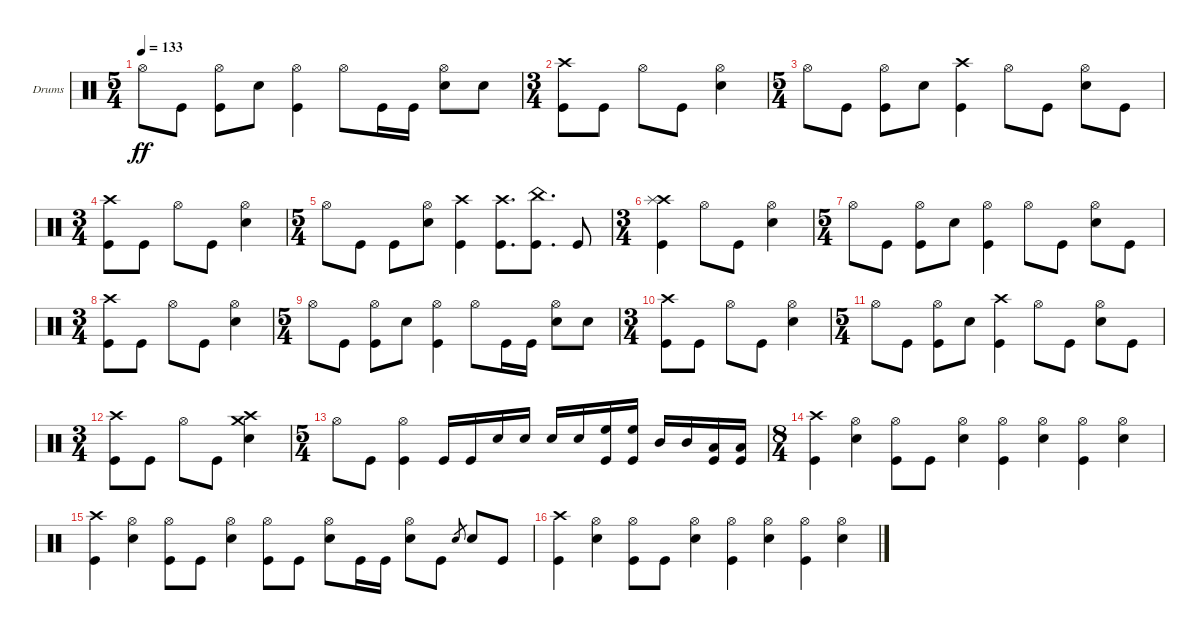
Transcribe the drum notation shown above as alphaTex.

\bracketExtendMode groupsimilarinstruments
\firstSystemTrackNameOrientation horizontal
\otherSystemsTrackNameOrientation horizontal
\track ("Drumkit" "Drums") {instrument percussion}
\staff {score}
\articulation defaults
\ts (5 4)
\tempo 133
\clef neutral
\ks c "Hi-Hat (open)".8{dy ff} "Kick (hit)".8
("Hi-Hat (open)" "Kick (hit)").8 "Snare (hit) 2".8 ("Hi-Hat (open)" "Kick (hit)").4 "Hi-Hat (open)".8 "Kick (hit)".16 "Kick (hit)".16 ("Snare (hit) 2" "Hi-Hat (open)").8 "Snare (hit) 2".8 |
\ts (3 4)
("Kick (hit)" "Crash high (hit)").8 "Kick (hit)".8 "Hi-Hat (open)".8 "Kick (hit)".8 ("Snare (hit) 2" "Hi-Hat (open)").4 |
\ts (5 4)
"Hi-Hat (open)".8 "Kick (hit)".8 ("Kick (hit)" "Hi-Hat (open)").8 "Snare (hit) 2".8 ("Kick (hit)" "Crash high (hit)").4 "Hi-Hat (open)".8 "Kick (hit)".8 ("Snare (hit) 2" "Hi-Hat (open)").8 "Kick (hit)".8 |
\ts (3 4)
("Kick (hit)" "Crash high (hit)").8 "Kick (hit)".8 "Hi-Hat (open)".8 "Kick (hit)".8 ("Snare (hit) 2" "Hi-Hat (open)").4 |
\ts (5 4)
"Hi-Hat (open)".8 "Kick (hit)".8 "Kick (hit)".8 ("Snare (hit) 2" "Hi-Hat (open)").8 ("Crash high (hit)" "Kick (hit)").4 ("Crash high (hit)" "Kick (hit)").8{d} ("Kick (hit)" "China (hit)").8{d} "Kick (hit)".8 |
\ts (3 4)
("Kick (hit)" "Crash high (hit)" "Splash (hit)").4 "Hi-Hat (open)".8 "Kick (hit)".8 ("Snare (hit) 2" "Hi-Hat (open)").4 |
\ts (5 4)
"Hi-Hat (open)".8 "Kick (hit)".8 ("Kick (hit)" "Hi-Hat (open)").8 "Snare (hit) 2".8 ("Kick (hit)" "Hi-Hat (open)").4 "Hi-Hat (open)".8 "Kick (hit)".8 ("Snare (hit) 2" "Hi-Hat (open)").8 "Kick (hit)".8 |
\ts (3 4)
("Kick (hit)" "Crash high (hit)").8 "Kick (hit)".8 "Hi-Hat (open)".8 "Kick (hit)".8 ("Snare (hit) 2" "Hi-Hat (open)").4 |
\ts (5 4)
"Hi-Hat (open)".8 "Kick (hit)".8 ("Hi-Hat (open)" "Kick (hit)").8 "Snare (hit) 2".8 ("Hi-Hat (open)" "Kick (hit)").4 "Hi-Hat (open)".8 "Kick (hit)".16 "Kick (hit)".16 ("Snare (hit) 2" "Hi-Hat (open)").8 "Snare (hit) 2".8 |
\ts (3 4)
("Kick (hit)" "Crash high (hit)").8 "Kick (hit)".8 "Hi-Hat (open)".8 "Kick (hit)".8 ("Snare (hit) 2" "Hi-Hat (open)").4 |
\ts (5 4)
"Hi-Hat (open)".8 "Kick (hit)".8 ("Kick (hit)" "Hi-Hat (open)").8 "Snare (hit) 2".8 ("Kick (hit)" "Crash high (hit)").4 "Hi-Hat (open)".8 "Kick (hit)".8 ("Snare (hit) 2" "Hi-Hat (open)").8 "Kick (hit)".8 |
\ts (3 4)
("Kick (hit)" "Crash high (hit)").8 "Kick (hit)".8 "Hi-Hat (open)".8 "Kick (hit)".8 ("Snare (hit) 2" "Crash high (hit)" "Crash medium (hit)").4 |
\ts (5 4)
"Hi-Hat (open)".8 "Kick (hit)".8 ("Kick (hit)" "Hi-Hat (open)").4 "Kick (hit)".16 "Kick (hit)".16 "Snare (hit) 2".16 "Snare (hit) 2".16 "Snare (hit) 2".16 "Snare (hit) 2".16 ("Kick (hit)" "High Floor Tom (hit)").16 ("Kick (hit)" "High Floor Tom (hit)").16 "Mid Tom (hit)".16 "Mid Tom (hit)".16 ("Kick (hit)" "Low Tom (hit)").16 ("Kick (hit)" "Low Tom (hit)").16 |
\ts (8 4)
("Kick (hit)" "Crash high (hit)").4 ("Hi-Hat (open)" "Snare (hit) 2").4 ("Hi-Hat (open)" "Kick (hit)").8 "Kick (hit)".8 ("Hi-Hat (open)" "Snare (hit) 2").4 ("Hi-Hat (open)" "Kick (hit)").4 ("Hi-Hat (open)" "Snare (hit) 2").4 ("Hi-Hat (open)" "Kick (hit)").4 ("Hi-Hat (open)" "Snare (hit) 2").4 |
("Kick (hit)" "Crash high (hit)").4 ("Hi-Hat (open)" "Snare (hit) 2").4 ("Hi-Hat (open)" "Kick (hit)").8 "Kick (hit)".8 ("Hi-Hat (open)" "Snare (hit) 2").4 ("Hi-Hat (open)" "Kick (hit)").8 "Kick (hit)".8 ("Hi-Hat (open)" "Snare (hit) 2").8 "Kick (hit)".16 "Kick (hit)".16 ("Snare (hit) 2" "Hi-Hat (open)").8 "Kick (hit)".8 "Snare (hit) 2".8{gr} "Snare (hit) 2".8 "Kick (hit)".8 |
("Kick (hit)" "Crash high (hit)").4 ("Hi-Hat (open)" "Snare (hit) 2").4 ("Hi-Hat (open)" "Kick (hit)").8 "Kick (hit)".8 ("Hi-Hat (open)" "Snare (hit) 2").4 ("Hi-Hat (open)" "Kick (hit)").4 ("Hi-Hat (open)" "Snare (hit) 2").4 ("Hi-Hat (open)" "Kick (hit)").4 ("Hi-Hat (open)" "Snare (hit) 2").4
